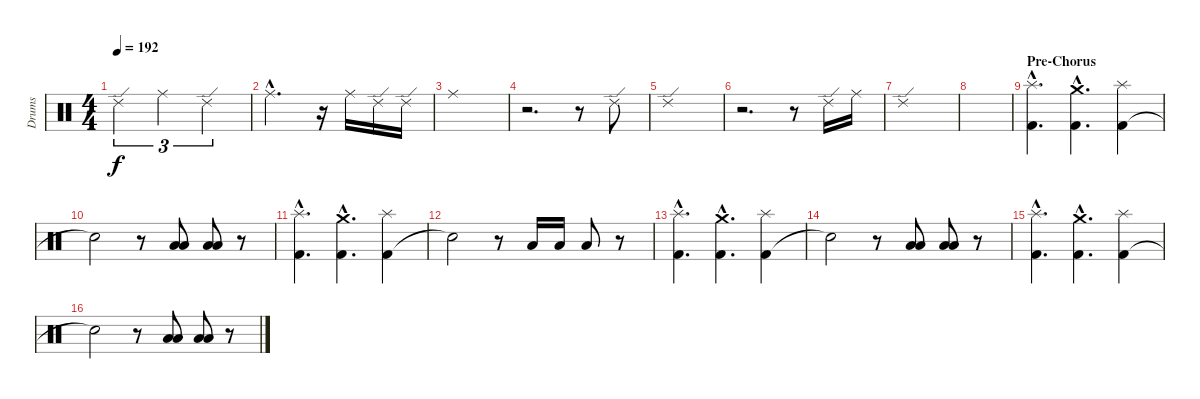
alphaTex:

\track ("Drums" "Drums") {instrument percussion}
\staff {score}
\articulation defaults
\ts (4 4)
\tempo 192
\clef neutral
\ks c "Ride (edge) 2".2{tu (3 2) dy f} "Ride (middle)".2{tu (3 2)} "Ride (edge) 2".2{tu (3 2)}
|
"Ride (middle)"{hac}.2{d} r.16 "Ride (middle)".16 "Ride (edge) 2".16 "Ride (edge) 2".16 |
"Ride (middle)".1 |
r.2{d} r.8 "Ride (edge) 2".8 |
"Ride (edge) 2".1 |
r.2{d} r.8 "Ride (edge) 2".16 "Ride (middle)".16 |
"Ride (edge) 2".1 |
|
\section ("" "Pre-Chorus")
("Kick (hit) 2"{hac} "Splash (hit)"{hac}).4{d} ("Kick (hit) 2"{hac} "Crash medium (hit)"{hac}).4{d} ("Kick (hit) 2" "Splash (hit)").4 |
"Snare (hit)"{t}.2 r.8 ("Low Tom (hit)" "Low Tom (hit)").8 ("Low Tom (hit)" "Low Tom (hit)").8 r.8 |
("Kick (hit) 2"{hac} "Splash (hit)"{hac}).4{d} ("Kick (hit) 2"{hac} "Crash medium (hit)"{hac}).4{d} ("Kick (hit) 2" "Splash (hit)").4 |
"Snare (hit)"{t}.2 r.8 "Low Tom (hit)".16 "Low Tom (hit)".16 "Low Tom (hit)".8 r.8 |
("Kick (hit) 2"{hac} "Splash (hit)"{hac}).4{d} ("Kick (hit) 2"{hac} "Crash medium (hit)"{hac}).4{d} ("Kick (hit) 2" "Splash (hit)").4 |
"Snare (hit)"{t}.2 r.8 ("Low Tom (hit)" "Low Tom (hit)").8 ("Low Tom (hit)" "Low Tom (hit)").8 r.8 |
("Kick (hit) 2"{hac} "Splash (hit)"{hac}).4{d} ("Kick (hit) 2"{hac} "Crash medium (hit)"{hac}).4{d} ("Kick (hit) 2" "Splash (hit)").4 |
"Snare (hit)"{t}.2 r.8 ("Low Floor Tom (hit)" "Low Tom (hit)").8 ("Low Floor Tom (hit)" "Low Tom (hit)").8 r.8
